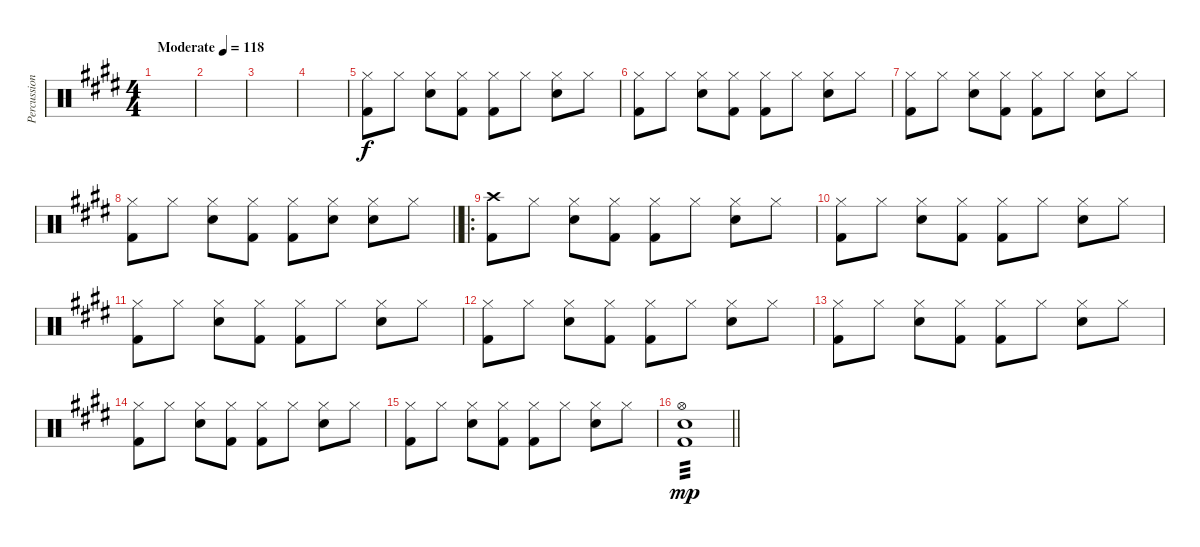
\track ("Percussion" "Percussion") {instrument percussion}
\staff {score}
\articulation defaults
\ts (4 4)
\tempo (118 "Moderate")
\clef neutral
\ks e
|
|
|
|
("Hi-Hat (closed)" "Kick (hit) 2").8 "Hi-Hat (closed)".8 ("Hi-Hat (closed)" "Snare (hit) 2").8 ("Hi-Hat (closed)" "Kick (hit) 2").8 ("Hi-Hat (closed)" "Kick (hit) 2").8 "Hi-Hat (closed)".8 ("Hi-Hat (closed)" "Snare (hit) 2").8 "Hi-Hat (closed)".8 |
("Hi-Hat (closed)" "Kick (hit) 2").8 "Hi-Hat (closed)".8 ("Hi-Hat (closed)" "Snare (hit) 2").8 ("Hi-Hat (closed)" "Kick (hit) 2").8 ("Hi-Hat (closed)" "Kick (hit) 2").8 "Hi-Hat (closed)".8 ("Hi-Hat (closed)" "Snare (hit) 2").8 "Hi-Hat (closed)".8 |
("Hi-Hat (closed)" "Kick (hit) 2").8 "Hi-Hat (closed)".8 ("Hi-Hat (closed)" "Snare (hit) 2").8 ("Hi-Hat (closed)" "Kick (hit) 2").8 ("Hi-Hat (closed)" "Kick (hit) 2").8 "Hi-Hat (closed)".8 ("Hi-Hat (closed)" "Snare (hit) 2").8 "Hi-Hat (closed)".8 |
\barLineRight lightlight
("Hi-Hat (closed)" "Kick (hit) 2").8 "Hi-Hat (closed)".8 ("Hi-Hat (closed)" "Snare (hit) 2").8 ("Hi-Hat (closed)" "Kick (hit) 2").8 ("Hi-Hat (closed)" "Kick (hit) 2").8 ("Hi-Hat (closed)" "Snare (hit) 2").8 ("Hi-Hat (closed)" "Snare (hit) 2").8 "Hi-Hat (closed)".8 |
\ro
("Crash high (hit)" "Kick (hit) 2").8 "Hi-Hat (closed)".8 ("Hi-Hat (closed)" "Snare (hit) 2").8 ("Hi-Hat (closed)" "Kick (hit) 2").8 ("Hi-Hat (closed)" "Kick (hit) 2").8 "Hi-Hat (closed)".8 ("Hi-Hat (closed)" "Snare (hit) 2").8 "Hi-Hat (closed)".8 |
("Hi-Hat (closed)" "Kick (hit) 2").8 "Hi-Hat (closed)".8 ("Hi-Hat (closed)" "Snare (hit) 2").8 ("Hi-Hat (closed)" "Kick (hit) 2").8 ("Hi-Hat (closed)" "Kick (hit) 2").8 "Hi-Hat (closed)".8 ("Hi-Hat (closed)" "Snare (hit) 2").8 "Hi-Hat (closed)".8 |
("Hi-Hat (closed)" "Kick (hit) 2").8 "Hi-Hat (closed)".8 ("Hi-Hat (closed)" "Snare (hit) 2").8 ("Hi-Hat (closed)" "Kick (hit) 2").8 ("Hi-Hat (closed)" "Kick (hit) 2").8 "Hi-Hat (closed)".8 ("Hi-Hat (closed)" "Snare (hit) 2").8 "Hi-Hat (closed)".8 |
("Hi-Hat (closed)" "Kick (hit) 2").8 "Hi-Hat (closed)".8 ("Hi-Hat (closed)" "Snare (hit) 2").8 ("Hi-Hat (closed)" "Kick (hit) 2").8 ("Hi-Hat (closed)" "Kick (hit) 2").8 "Hi-Hat (closed)".8 ("Hi-Hat (closed)" "Snare (hit) 2").8 "Hi-Hat (closed)".8 |
("Hi-Hat (closed)" "Kick (hit) 2").8 "Hi-Hat (closed)".8 ("Hi-Hat (closed)" "Snare (hit) 2").8 ("Hi-Hat (closed)" "Kick (hit) 2").8 ("Hi-Hat (closed)" "Kick (hit) 2").8 "Hi-Hat (closed)".8 ("Hi-Hat (closed)" "Snare (hit) 2").8 "Hi-Hat (closed)".8 |
("Hi-Hat (closed)" "Kick (hit) 2").8 "Hi-Hat (closed)".8 ("Hi-Hat (closed)" "Snare (hit) 2").8 ("Hi-Hat (closed)" "Kick (hit) 2").8 ("Hi-Hat (closed)" "Kick (hit) 2").8 "Hi-Hat (closed)".8 ("Hi-Hat (closed)" "Snare (hit) 2").8 "Hi-Hat (closed)".8 |
("Hi-Hat (closed)" "Kick (hit) 2").8 "Hi-Hat (closed)".8 ("Hi-Hat (closed)" "Snare (hit) 2").8 ("Hi-Hat (closed)" "Kick (hit) 2").8 ("Hi-Hat (closed)" "Kick (hit) 2").8 "Hi-Hat (closed)".8 ("Hi-Hat (closed)" "Snare (hit) 2").8 "Hi-Hat (closed)".8 |
\barLineRight lightlight
("Snare (hit) 2" "Kick (hit) 2" "Hi-Hat (open)").1{tp 3 dy mp}
